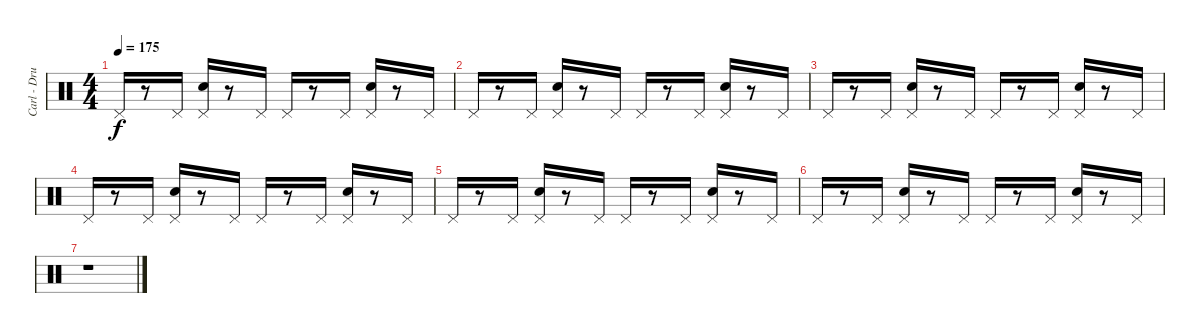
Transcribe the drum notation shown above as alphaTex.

\track ("Carl - Drums II" "Carl - Dru") {instrument percussion}
\staff {score}
\articulation defaults
\ts (4 4)
\tempo 175
\clef neutral
\ks c "Pedal Hi-Hat (hit)".16{dy f}
r.8 "Pedal Hi-Hat (hit)".16 ("Pedal Hi-Hat (hit)" "Electric Snare (hit)").16 r.8 "Pedal Hi-Hat (hit)".16 "Pedal Hi-Hat (hit)".16 r.8 "Pedal Hi-Hat (hit)".16 ("Pedal Hi-Hat (hit)" "Electric Snare (hit)").16 r.8 "Pedal Hi-Hat (hit)".16 |
"Pedal Hi-Hat (hit)".16 r.8 "Pedal Hi-Hat (hit)".16 ("Pedal Hi-Hat (hit)" "Electric Snare (hit)").16 r.8 "Pedal Hi-Hat (hit)".16 "Pedal Hi-Hat (hit)".16 r.8 "Pedal Hi-Hat (hit)".16 ("Pedal Hi-Hat (hit)" "Electric Snare (hit)").16 r.8 "Pedal Hi-Hat (hit)".16 |
"Pedal Hi-Hat (hit)".16 r.8 "Pedal Hi-Hat (hit)".16 ("Pedal Hi-Hat (hit)" "Electric Snare (hit)").16 r.8 "Pedal Hi-Hat (hit)".16 "Pedal Hi-Hat (hit)".16 r.8 "Pedal Hi-Hat (hit)".16 ("Pedal Hi-Hat (hit)" "Electric Snare (hit)").16 r.8 "Pedal Hi-Hat (hit)".16 |
"Pedal Hi-Hat (hit)".16 r.8 "Pedal Hi-Hat (hit)".16 ("Pedal Hi-Hat (hit)" "Electric Snare (hit)").16 r.8 "Pedal Hi-Hat (hit)".16 "Pedal Hi-Hat (hit)".16 r.8 "Pedal Hi-Hat (hit)".16 ("Pedal Hi-Hat (hit)" "Electric Snare (hit)").16 r.8 "Pedal Hi-Hat (hit)".16 |
"Pedal Hi-Hat (hit)".16 r.8 "Pedal Hi-Hat (hit)".16 ("Pedal Hi-Hat (hit)" "Electric Snare (hit)").16 r.8 "Pedal Hi-Hat (hit)".16 "Pedal Hi-Hat (hit)".16 r.8 "Pedal Hi-Hat (hit)".16 ("Pedal Hi-Hat (hit)" "Electric Snare (hit)").16 r.8 "Pedal Hi-Hat (hit)".16 |
"Pedal Hi-Hat (hit)".16 r.8 "Pedal Hi-Hat (hit)".16 ("Pedal Hi-Hat (hit)" "Electric Snare (hit)").16 r.8 "Pedal Hi-Hat (hit)".16 "Pedal Hi-Hat (hit)".16 r.8 "Pedal Hi-Hat (hit)".16 ("Pedal Hi-Hat (hit)" "Electric Snare (hit)").16 r.8 "Pedal Hi-Hat (hit)".16 |
r.1
